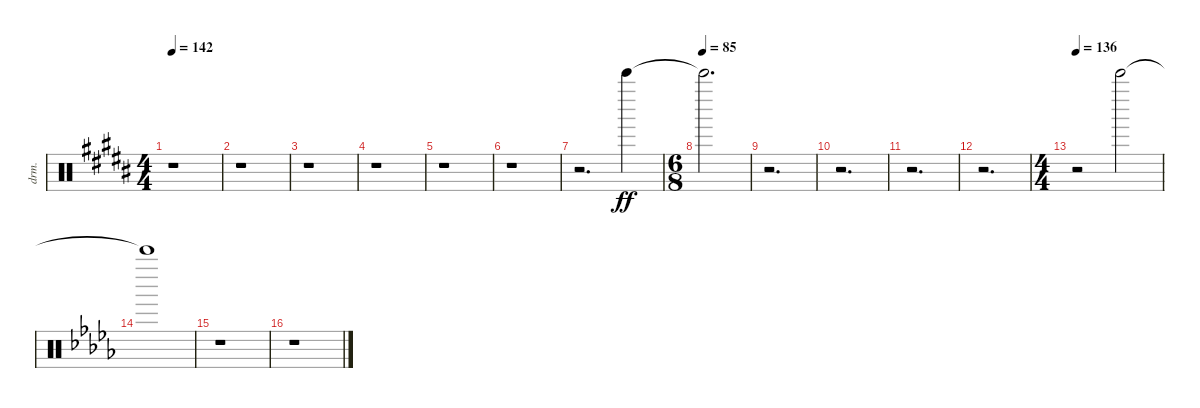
\bracketExtendMode nobrackets
\track ("Wind Chimes" "drm.") {instrument percussion}
\staff {score}
\articulation defaults
\ts (4 4)
\tempo 142
\clef neutral
\ks g#minor
r.1{dy ff beam Down} |
r.1{beam Down} |
r.1{beam Down} |
r.1{beam Down} |
r.1{beam Down} |
r.1{beam Down} |
r.2{d beam Down} "Bell Tree (hit)"{acc forcenatural}.4{beam Down} |
\ts (6 8)
\tempo (85)
"Bell Tree (hit)"{t acc forcenatural}.2{d beam Down} |
r.2{d beam Down} |
r.2{d beam Down} |
r.2{d beam Down} |
r.2{d beam Down} |
\ts (4 4)
\tempo 136
r.2{beam Down} "Bell Tree (hit)"{acc forcenatural}.2{beam Down} |
\ks db "Bell Tree (hit)"{t acc forcenatural}.1{beam Down}
|
r.1{beam Down} |
r.1{beam Down}
